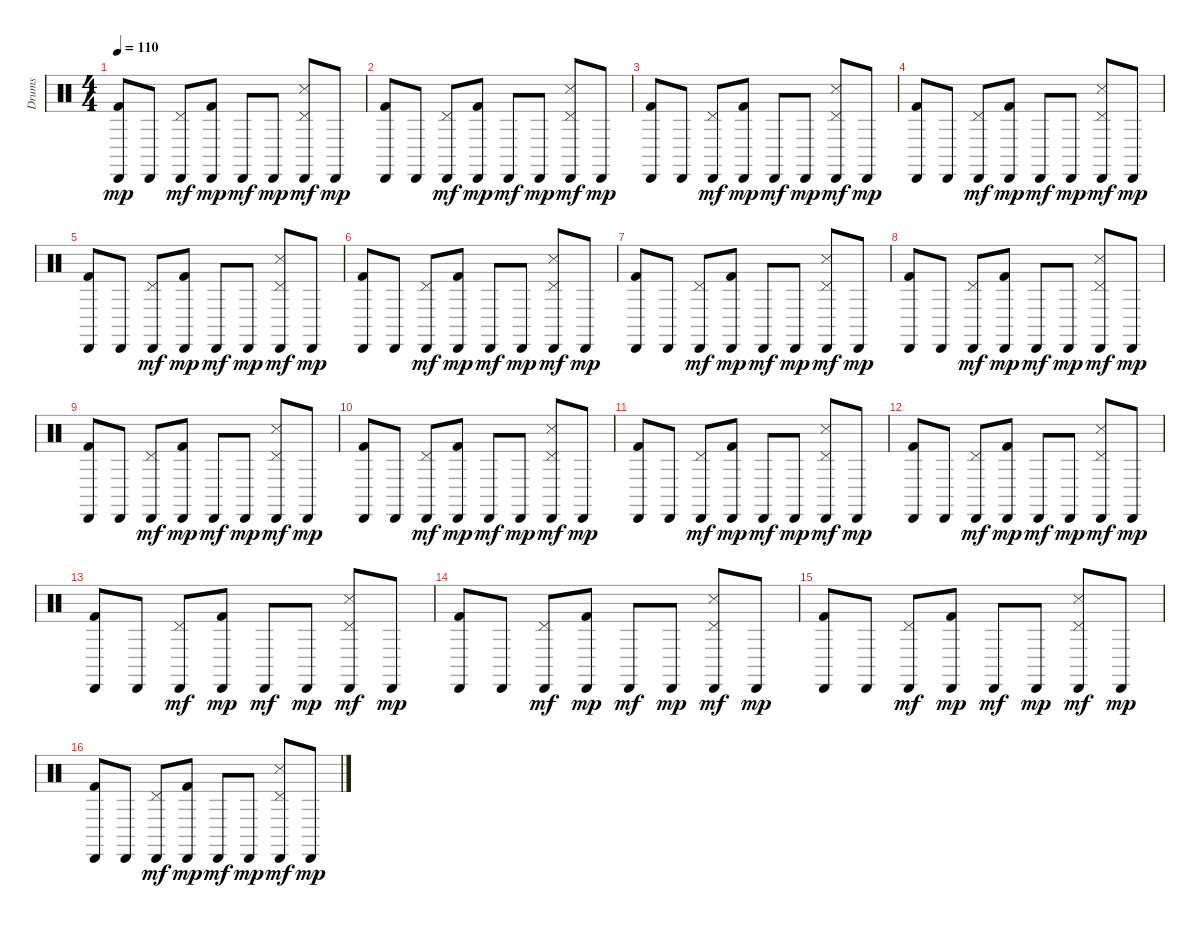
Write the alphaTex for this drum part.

\track ("Drums" "Drums") {instrument percussion}
\staff {score}
\articulation defaults
\ts (4 4)
\tempo 110
\clef neutral
\ks c
("Cabasa (hit)" "Kick (hit) 2").8{dy mp} "Cabasa (hit)".8 ("Cabasa (hit)" "Pedal Hi-Hat (hit)").8{dy mf} ("Cabasa (hit)" "Kick (hit) 2").8{dy mp} "Cabasa (hit)".8{dy mf} "Cabasa (hit)".8{dy mp} ("Cabasa (hit)" "Pedal Hi-Hat (hit)" "Snare (side stick) 3").8{dy mf} "Cabasa (hit)".8{dy mp} |
("Cabasa (hit)" "Kick (hit) 2").8 "Cabasa (hit)".8 ("Cabasa (hit)" "Pedal Hi-Hat (hit)").8{dy mf} ("Cabasa (hit)" "Kick (hit) 2").8{dy mp} "Cabasa (hit)".8{dy mf} "Cabasa (hit)".8{dy mp} ("Cabasa (hit)" "Pedal Hi-Hat (hit)" "Snare (side stick) 3").8{dy mf} "Cabasa (hit)".8{dy mp} |
("Cabasa (hit)" "Kick (hit) 2").8 "Cabasa (hit)".8 ("Cabasa (hit)" "Pedal Hi-Hat (hit)").8{dy mf} ("Cabasa (hit)" "Kick (hit) 2").8{dy mp} "Cabasa (hit)".8{dy mf} "Cabasa (hit)".8{dy mp} ("Cabasa (hit)" "Pedal Hi-Hat (hit)" "Snare (side stick) 3").8{dy mf} "Cabasa (hit)".8{dy mp} |
("Cabasa (hit)" "Kick (hit) 2").8 "Cabasa (hit)".8 ("Cabasa (hit)" "Pedal Hi-Hat (hit)").8{dy mf} ("Cabasa (hit)" "Kick (hit) 2").8{dy mp} "Cabasa (hit)".8{dy mf} "Cabasa (hit)".8{dy mp} ("Cabasa (hit)" "Pedal Hi-Hat (hit)" "Snare (side stick) 3").8{dy mf} "Cabasa (hit)".8{dy mp} |
("Cabasa (hit)" "Kick (hit) 2").8 "Cabasa (hit)".8 ("Cabasa (hit)" "Pedal Hi-Hat (hit)").8{dy mf} ("Cabasa (hit)" "Kick (hit) 2").8{dy mp} "Cabasa (hit)".8{dy mf} "Cabasa (hit)".8{dy mp} ("Cabasa (hit)" "Pedal Hi-Hat (hit)" "Snare (side stick) 3").8{dy mf} "Cabasa (hit)".8{dy mp} |
("Cabasa (hit)" "Kick (hit) 2").8 "Cabasa (hit)".8 ("Cabasa (hit)" "Pedal Hi-Hat (hit)").8{dy mf} ("Cabasa (hit)" "Kick (hit) 2").8{dy mp} "Cabasa (hit)".8{dy mf} "Cabasa (hit)".8{dy mp} ("Cabasa (hit)" "Pedal Hi-Hat (hit)" "Snare (side stick) 3").8{dy mf} "Cabasa (hit)".8{dy mp} |
("Cabasa (hit)" "Kick (hit) 2").8 "Cabasa (hit)".8 ("Cabasa (hit)" "Pedal Hi-Hat (hit)").8{dy mf} ("Cabasa (hit)" "Kick (hit) 2").8{dy mp} "Cabasa (hit)".8{dy mf} "Cabasa (hit)".8{dy mp} ("Cabasa (hit)" "Pedal Hi-Hat (hit)" "Snare (side stick) 3").8{dy mf} "Cabasa (hit)".8{dy mp} |
("Cabasa (hit)" "Kick (hit) 2").8 "Cabasa (hit)".8 ("Cabasa (hit)" "Pedal Hi-Hat (hit)").8{dy mf} ("Cabasa (hit)" "Kick (hit) 2").8{dy mp} "Cabasa (hit)".8{dy mf} "Cabasa (hit)".8{dy mp} ("Cabasa (hit)" "Pedal Hi-Hat (hit)" "Snare (side stick) 3").8{dy mf} "Cabasa (hit)".8{dy mp} |
("Cabasa (hit)" "Kick (hit) 2").8 "Cabasa (hit)".8 ("Cabasa (hit)" "Pedal Hi-Hat (hit)").8{dy mf} ("Cabasa (hit)" "Kick (hit) 2").8{dy mp} "Cabasa (hit)".8{dy mf} "Cabasa (hit)".8{dy mp} ("Cabasa (hit)" "Pedal Hi-Hat (hit)" "Snare (side stick) 3").8{dy mf} "Cabasa (hit)".8{dy mp} |
("Cabasa (hit)" "Kick (hit) 2").8 "Cabasa (hit)".8 ("Cabasa (hit)" "Pedal Hi-Hat (hit)").8{dy mf} ("Cabasa (hit)" "Kick (hit) 2").8{dy mp} "Cabasa (hit)".8{dy mf} "Cabasa (hit)".8{dy mp} ("Cabasa (hit)" "Pedal Hi-Hat (hit)" "Snare (side stick) 3").8{dy mf} "Cabasa (hit)".8{dy mp} |
("Cabasa (hit)" "Kick (hit) 2").8 "Cabasa (hit)".8 ("Cabasa (hit)" "Pedal Hi-Hat (hit)").8{dy mf} ("Cabasa (hit)" "Kick (hit) 2").8{dy mp} "Cabasa (hit)".8{dy mf} "Cabasa (hit)".8{dy mp} ("Cabasa (hit)" "Pedal Hi-Hat (hit)" "Snare (side stick) 3").8{dy mf} "Cabasa (hit)".8{dy mp} |
("Cabasa (hit)" "Kick (hit) 2").8 "Cabasa (hit)".8 ("Cabasa (hit)" "Pedal Hi-Hat (hit)").8{dy mf} ("Cabasa (hit)" "Kick (hit) 2").8{dy mp} "Cabasa (hit)".8{dy mf} "Cabasa (hit)".8{dy mp} ("Cabasa (hit)" "Pedal Hi-Hat (hit)" "Snare (side stick) 3").8{dy mf} "Cabasa (hit)".8{dy mp} |
("Cabasa (hit)" "Kick (hit) 2").8 "Cabasa (hit)".8 ("Cabasa (hit)" "Pedal Hi-Hat (hit)").8{dy mf} ("Cabasa (hit)" "Kick (hit) 2").8{dy mp} "Cabasa (hit)".8{dy mf} "Cabasa (hit)".8{dy mp} ("Cabasa (hit)" "Pedal Hi-Hat (hit)" "Snare (side stick) 3").8{dy mf} "Cabasa (hit)".8{dy mp} |
("Cabasa (hit)" "Kick (hit) 2").8 "Cabasa (hit)".8 ("Cabasa (hit)" "Pedal Hi-Hat (hit)").8{dy mf} ("Cabasa (hit)" "Kick (hit) 2").8{dy mp} "Cabasa (hit)".8{dy mf} "Cabasa (hit)".8{dy mp} ("Cabasa (hit)" "Pedal Hi-Hat (hit)" "Snare (side stick) 3").8{dy mf} "Cabasa (hit)".8{dy mp} |
("Cabasa (hit)" "Kick (hit) 2").8 "Cabasa (hit)".8 ("Cabasa (hit)" "Pedal Hi-Hat (hit)").8{dy mf} ("Cabasa (hit)" "Kick (hit) 2").8{dy mp} "Cabasa (hit)".8{dy mf} "Cabasa (hit)".8{dy mp} ("Cabasa (hit)" "Pedal Hi-Hat (hit)" "Snare (side stick) 3").8{dy mf} "Cabasa (hit)".8{dy mp} |
("Cabasa (hit)" "Kick (hit) 2").8 "Cabasa (hit)".8 ("Cabasa (hit)" "Pedal Hi-Hat (hit)").8{dy mf} ("Cabasa (hit)" "Kick (hit) 2").8{dy mp} "Cabasa (hit)".8{dy mf} "Cabasa (hit)".8{dy mp} ("Cabasa (hit)" "Pedal Hi-Hat (hit)" "Snare (side stick) 3").8{dy mf} "Cabasa (hit)".8{dy mp}
